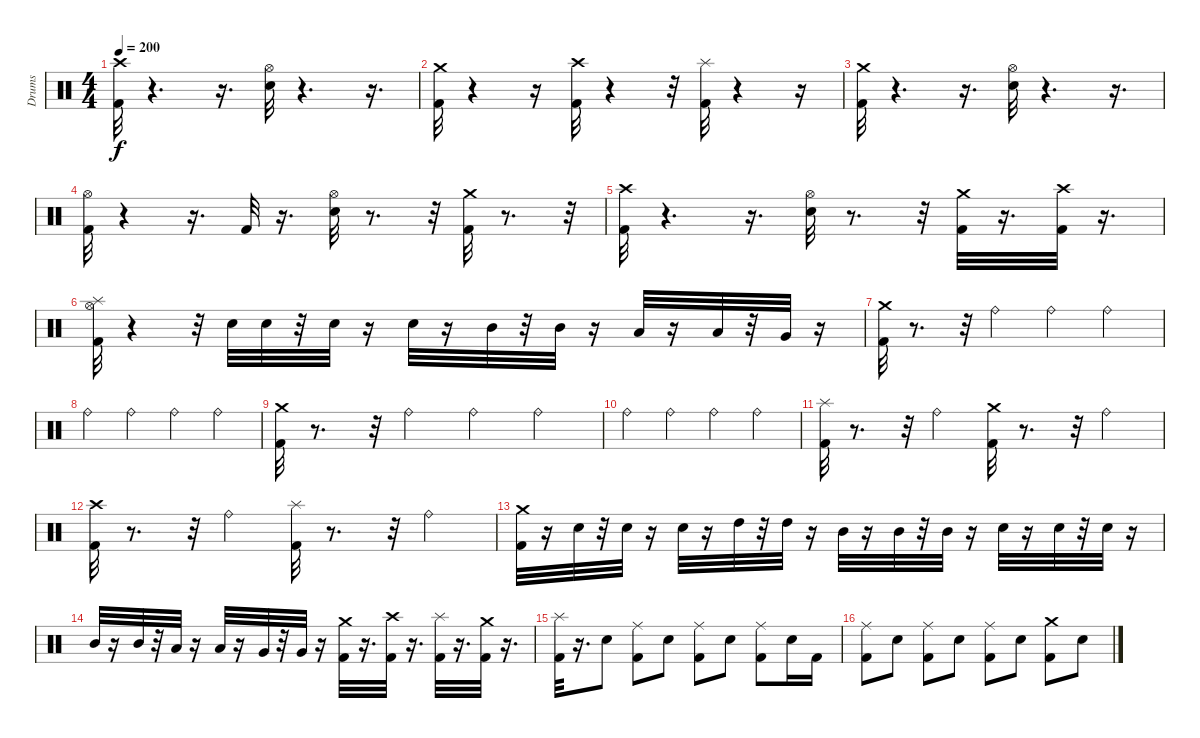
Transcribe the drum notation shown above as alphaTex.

\track ("Drums" "Drums") {instrument percussion}
\staff {score}
\articulation defaults
\ts (4 4)
\tempo 200
\clef neutral
\ks c
("Crash high (hit)" "Kick (hit) 2").32{dy f} r.4{d} r.16{d} ("Hi-Hat (open)" "Electric Snare (hit)").32 r.4{d} r.16{d} |
("Crash medium (hit)" "Kick (hit) 2").32 r.4 r.16 ("Kick (hit) 2" "Crash high (hit)").32 r.4 r.32 ("Kick (hit) 2" "Splash (hit)").32 r.4 r.16 |
("Crash medium (hit)" "Kick (hit) 2").32 r.4{d} r.16{d} ("Hi-Hat (open)" "Electric Snare (hit)").32 r.4{d} r.16{d} |
("Hi-Hat (open)" "Kick (hit) 2").32 r.4 r.16{d} "Kick (hit) 2".32 r.16{d} ("Electric Snare (hit)" "Hi-Hat (open)").32 r.8{d} r.32 ("Crash medium (hit)" "Kick (hit) 2").32 r.8{d} r.32 |
("Crash high (hit)" "Kick (hit) 2").32 r.4{d} r.16{d} ("Electric Snare (hit)" "Hi-Hat (open)").32 r.8{d} r.32 ("Crash medium (hit)" "Kick (hit) 2").32 r.16{d} ("Crash high (hit)" "Kick (hit) 2").32 r.16{d} |
("Splash (hit)" "Kick (hit) 2" "Hi-Hat (open)").32 r.4 r.32 "Electric Snare (hit)".32 "Electric Snare (hit)".32 r.32 "Electric Snare (hit)".32 r.16 "Electric Snare (hit)".32 r.16 "Mid Tom (hit)".32 r.32 "Mid Tom (hit)".32 r.16 "Low Tom (hit)".32 r.16 "Low Tom (hit)".32 r.32 "Very Low Tom (hit)".32 r.16 |
("Kick (hit) 2" "Crash medium (hit)").32 r.8{d} r.32 "Ride (bell)".4 "Ride (bell)".4 "Ride (bell)".4 |
"Ride (bell)".4 "Ride (bell)".4 "Ride (bell)".4 "Ride (bell)".4 |
("Kick (hit) 2" "Crash medium (hit)").32 r.8{d} r.32 "Ride (bell)".4 "Ride (bell)".4 "Ride (bell)".4 |
"Ride (bell)".4 "Ride (bell)".4 "Ride (bell)".4 "Ride (bell)".4 |
("Kick (hit) 2" "Splash (hit)").32 r.8{d} r.32 "Ride (bell)".4 ("Kick (hit) 2" "Crash medium (hit)").32 r.8{d} r.32 "Ride (bell)".4 |
("Kick (hit) 2" "Crash high (hit)").32 r.8{d} r.32 "Ride (bell)".4 ("Kick (hit) 2" "Splash (hit)").32 r.8{d} r.32 "Ride (bell)".4 |
("Crash medium (hit)" "Kick (hit) 2").32 r.16 "Electric Snare (hit)".32 r.32 "Electric Snare (hit)".32 r.16 "Electric Snare (hit)".32 r.16 "High Tom (hit)".32 r.32 "High Tom (hit)".32 r.16 "Mid Tom (hit)".32 r.16 "Mid Tom (hit)".32 r.32 "Mid Tom (hit)".32 r.16 "Electric Snare (hit)".32 r.16 "Electric Snare (hit)".32 r.32 "Electric Snare (hit)".32 r.16 |
"Mid Tom (hit)".32 r.16 "Mid Tom (hit)".32 r.32 "Low Tom (hit)".32 r.16 "Low Tom (hit)".32 r.16 "Very Low Tom (hit)".32 r.32 "Very Low Tom (hit)".32 r.16 ("Kick (hit) 2" "Crash medium (hit)").32 r.16{d} ("Kick (hit) 2" "Crash high (hit)").32 r.16{d} ("Kick (hit) 2" "Splash (hit)").32 r.16{d} ("Kick (hit) 2" "Crash medium (hit)").32 r.16{d} |
("Kick (hit) 2" "Splash (hit)").32 r.16{d} "Electric Snare (hit)".8 ("Ride (middle)" "Kick (hit) 2").8 "Electric Snare (hit)".8 ("Ride (middle)" "Kick (hit) 2").8 "Electric Snare (hit)".8 ("Ride (middle)" "Kick (hit) 2").8 "Electric Snare (hit)".16 "Kick (hit) 2".16 |
("Ride (middle)" "Kick (hit) 2").8 "Electric Snare (hit)".8 ("Kick (hit) 2" "Ride (middle)").8 "Electric Snare (hit)".8 ("Kick (hit) 2" "Ride (middle)").8 "Electric Snare (hit)".8 ("Kick (hit) 2" "Crash medium (hit)").8 "Electric Snare (hit)".8
